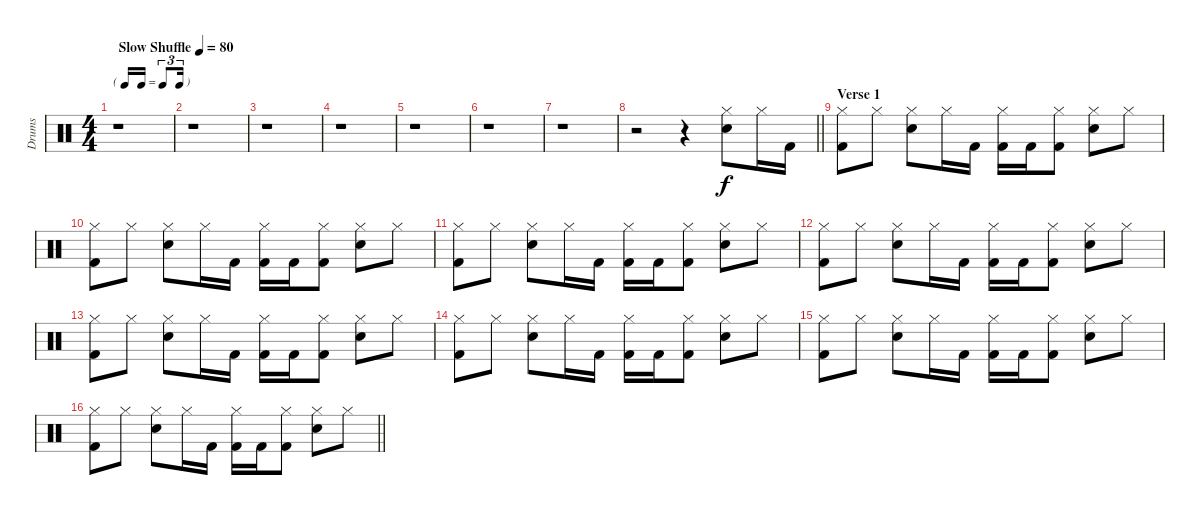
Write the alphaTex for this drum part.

\track ("Drums" "Drums") {instrument percussion}
\staff {score}
\articulation defaults
\ts (4 4)
\tf triplet16th
\tempo (80 "Slow Shuffle")
\clef neutral
\ks c
r.1{dy f} |
r.1 |
r.1 |
r.1 |
r.1 |
r.1 |
r.1 |
\barLineRight lightlight
r.2 r.4 ("Electric Snare (hit)" "Hi-Hat (closed)").8 "Hi-Hat (closed)".16 "Kick (hit) 2".16 |
\section ("" "Verse 1")
("Hi-Hat (closed)" "Kick (hit) 2").8 "Hi-Hat (closed)".8 ("Electric Snare (hit)" "Hi-Hat (closed)").8 "Hi-Hat (closed)".16 "Kick (hit) 2".16 ("Kick (hit) 2" "Hi-Hat (closed)").16 "Kick (hit) 2".16 ("Kick (hit) 2" "Hi-Hat (closed)").8 ("Electric Snare (hit)" "Hi-Hat (closed)").8 "Hi-Hat (closed)".8 |
("Hi-Hat (closed)" "Kick (hit) 2").8 "Hi-Hat (closed)".8 ("Electric Snare (hit)" "Hi-Hat (closed)").8 "Hi-Hat (closed)".16 "Kick (hit) 2".16 ("Kick (hit) 2" "Hi-Hat (closed)").16 "Kick (hit) 2".16 ("Kick (hit) 2" "Hi-Hat (closed)").8 ("Electric Snare (hit)" "Hi-Hat (closed)").8 "Hi-Hat (closed)".8 |
("Hi-Hat (closed)" "Kick (hit) 2").8 "Hi-Hat (closed)".8 ("Electric Snare (hit)" "Hi-Hat (closed)").8 "Hi-Hat (closed)".16 "Kick (hit) 2".16 ("Kick (hit) 2" "Hi-Hat (closed)").16 "Kick (hit) 2".16 ("Kick (hit) 2" "Hi-Hat (closed)").8 ("Electric Snare (hit)" "Hi-Hat (closed)").8 "Hi-Hat (closed)".8 |
("Hi-Hat (closed)" "Kick (hit) 2").8 "Hi-Hat (closed)".8 ("Electric Snare (hit)" "Hi-Hat (closed)").8 "Hi-Hat (closed)".16 "Kick (hit) 2".16 ("Kick (hit) 2" "Hi-Hat (closed)").16 "Kick (hit) 2".16 ("Kick (hit) 2" "Hi-Hat (closed)").8 ("Electric Snare (hit)" "Hi-Hat (closed)").8 "Hi-Hat (closed)".8 |
("Hi-Hat (closed)" "Kick (hit) 2").8 "Hi-Hat (closed)".8 ("Electric Snare (hit)" "Hi-Hat (closed)").8 "Hi-Hat (closed)".16 "Kick (hit) 2".16 ("Kick (hit) 2" "Hi-Hat (closed)").16 "Kick (hit) 2".16 ("Kick (hit) 2" "Hi-Hat (closed)").8 ("Electric Snare (hit)" "Hi-Hat (closed)").8 "Hi-Hat (closed)".8 |
("Hi-Hat (closed)" "Kick (hit) 2").8 "Hi-Hat (closed)".8 ("Electric Snare (hit)" "Hi-Hat (closed)").8 "Hi-Hat (closed)".16 "Kick (hit) 2".16 ("Kick (hit) 2" "Hi-Hat (closed)").16 "Kick (hit) 2".16 ("Kick (hit) 2" "Hi-Hat (closed)").8 ("Electric Snare (hit)" "Hi-Hat (closed)").8 "Hi-Hat (closed)".8 |
("Hi-Hat (closed)" "Kick (hit) 2").8 "Hi-Hat (closed)".8 ("Electric Snare (hit)" "Hi-Hat (closed)").8 "Hi-Hat (closed)".16 "Kick (hit) 2".16 ("Kick (hit) 2" "Hi-Hat (closed)").16 "Kick (hit) 2".16 ("Kick (hit) 2" "Hi-Hat (closed)").8 ("Electric Snare (hit)" "Hi-Hat (closed)").8 "Hi-Hat (closed)".8 |
\barLineRight lightlight
("Hi-Hat (closed)" "Kick (hit) 2").8 "Hi-Hat (closed)".8 ("Electric Snare (hit)" "Hi-Hat (closed)").8 "Hi-Hat (closed)".16 "Kick (hit) 2".16 ("Kick (hit) 2" "Hi-Hat (closed)").16 "Kick (hit) 2".16 ("Kick (hit) 2" "Hi-Hat (closed)").8 ("Electric Snare (hit)" "Hi-Hat (closed)").8 "Hi-Hat (closed)".8
